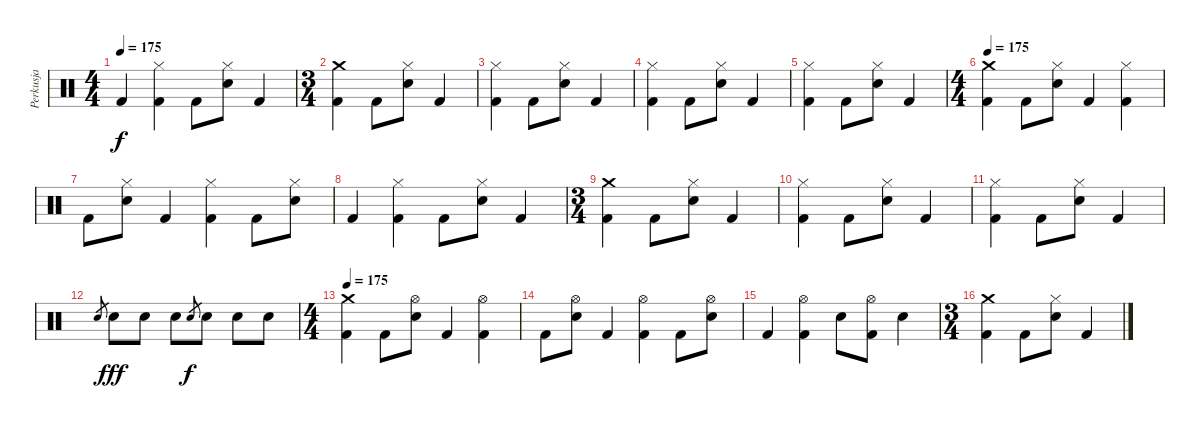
\track ("Perkusja" "Perkusja") {instrument percussion}
\staff {score}
\articulation defaults
\ts (4 4)
\tempo 175
\clef neutral
\ks c "Kick (hit) 2".4{dy f}
("Hi-Hat (closed)" "Kick (hit) 2").4 "Kick (hit) 2".8 ("Hi-Hat (closed)" "Snare (hit) 2").8 "Kick (hit) 2".4 |
\ts (3 4)
("Crash medium (hit)" "Kick (hit) 2").4 "Kick (hit) 2".8 ("Hi-Hat (closed)" "Snare (hit) 2").8 "Kick (hit) 2".4 |
("Hi-Hat (closed)" "Kick (hit) 2").4 "Kick (hit) 2".8 ("Hi-Hat (closed)" "Snare (hit) 2").8 "Kick (hit) 2".4 |
("Hi-Hat (closed)" "Kick (hit) 2").4 "Kick (hit) 2".8 ("Hi-Hat (closed)" "Snare (hit) 2").8 "Kick (hit) 2".4 |
("Hi-Hat (closed)" "Kick (hit) 2").4 "Kick (hit) 2".8 ("Hi-Hat (closed)" "Snare (hit) 2").8 "Kick (hit) 2".4 |
\ts (4 4)
\tempo 175
("Crash medium (hit)" "Kick (hit) 2").4 "Kick (hit) 2".8 ("Hi-Hat (closed)" "Snare (hit) 2").8 "Kick (hit) 2".4 ("Hi-Hat (closed)" "Kick (hit) 2").4 |
"Kick (hit) 2".8 ("Hi-Hat (closed)" "Snare (hit) 2").8 "Kick (hit) 2".4 ("Hi-Hat (closed)" "Kick (hit) 2").4 "Kick (hit) 2".8 ("Hi-Hat (closed)" "Snare (hit) 2").8 |
"Kick (hit) 2".4 ("Hi-Hat (closed)" "Kick (hit) 2").4 "Kick (hit) 2".8 ("Hi-Hat (closed)" "Snare (hit) 2").8 "Kick (hit) 2".4 |
\ts (3 4)
("Crash medium (hit)" "Kick (hit) 2").4 "Kick (hit) 2".8 ("Hi-Hat (closed)" "Snare (hit) 2").8 "Kick (hit) 2".4 |
("Hi-Hat (closed)" "Kick (hit) 2").4 "Kick (hit) 2".8 ("Hi-Hat (closed)" "Snare (hit) 2").8 "Kick (hit) 2".4 |
("Hi-Hat (closed)" "Kick (hit) 2").4 "Kick (hit) 2".8 ("Hi-Hat (closed)" "Snare (hit) 2").8 "Kick (hit) 2".4 |
"Electric Snare (hit)".8{gr} "Electric Snare (hit)".8{dy fff} "Electric Snare (hit)".8 "Electric Snare (hit)".8 "Snare (hit) 2".8{gr dy f} "Snare (hit) 2".8 "Snare (hit) 2".8 "Snare (hit) 2".8 |
\ts (4 4)
\tempo 175
("Crash medium (hit)" "Kick (hit) 2").4 "Kick (hit) 2".8 ("Hi-Hat (open)" "Snare (hit) 2").8 "Kick (hit) 2".4 ("Hi-Hat (open)" "Kick (hit) 2").4 |
"Kick (hit) 2".8 ("Hi-Hat (open)" "Snare (hit) 2").8 "Kick (hit) 2".4 ("Hi-Hat (open)" "Kick (hit) 2").4 "Kick (hit) 2".8 ("Hi-Hat (open)" "Snare (hit) 2").8 |
"Kick (hit) 2".4 ("Hi-Hat (open)" "Kick (hit) 2").4 "Snare (hit) 2".8 ("Hi-Hat (open)" "Kick (hit) 2").8 "Snare (hit) 2".4 |
\ts (3 4)
("Crash medium (hit)" "Kick (hit) 2").4 "Kick (hit) 2".8 ("Hi-Hat (closed)" "Snare (hit) 2").8 "Kick (hit) 2".4
